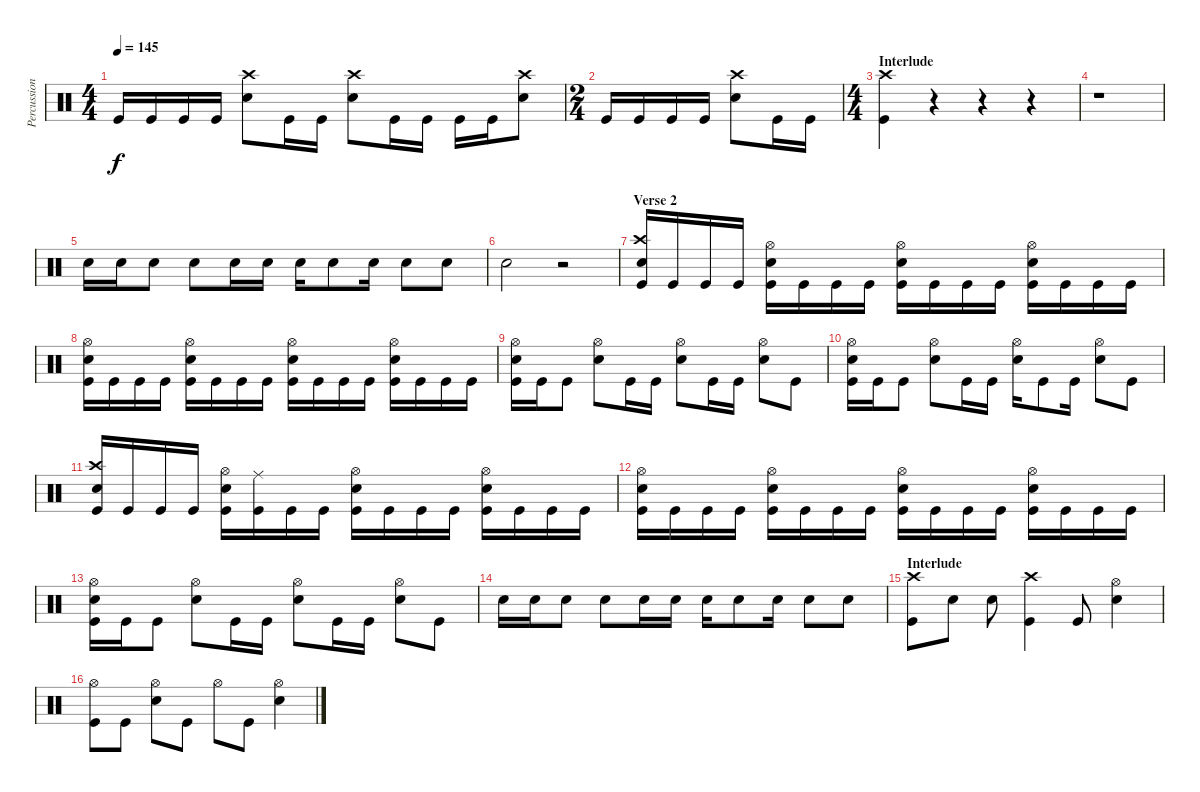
\track ("Percussions" "Percussion") {instrument percussion}
\staff {score}
\articulation defaults
\ts (4 4)
\tempo 145
\clef neutral
\ks c "Kick (hit)".16{dy f} "Kick (hit)".16 "Kick (hit)".16 "Kick (hit)".16
("Crash high (hit)" "Snare (hit) 2").8 "Kick (hit)".16 "Kick (hit)".16 ("Crash high (hit)" "Snare (hit) 2").8 "Kick (hit)".16 "Kick (hit)".16 "Kick (hit)".16 "Kick (hit)".16 ("Crash high (hit)" "Snare (hit) 2").8 |
\ts (2 4)
"Kick (hit)".16 "Kick (hit)".16 "Kick (hit)".16 "Kick (hit)".16 ("Crash high (hit)" "Snare (hit) 2").8 "Kick (hit)".16 "Kick (hit)".16 |
\ts (4 4)
\section ("" "Interlude")
("Crash high (hit)" "Kick (hit)").4 r.4 r.4 r.4 |
r.1 |
"Snare (hit) 2".16 "Snare (hit) 2".16 "Snare (hit) 2".8 "Snare (hit) 2".8 "Snare (hit) 2".16 "Snare (hit) 2".16 "Snare (hit) 2".16 "Snare (hit) 2".8 "Snare (hit) 2".16 "Snare (hit) 2".8 "Snare (hit) 2".8 |
"Snare (hit) 2".2 r.2 |
\section ("" "Verse 2")
("Crash high (hit)" "Snare (hit) 2" "Kick (hit)").16 "Kick (hit)".16 "Kick (hit)".16 "Kick (hit)".16 ("Hi-Hat (open)" "Snare (hit) 2" "Kick (hit)").16 "Kick (hit)".16 "Kick (hit)".16 "Kick (hit)".16 ("Hi-Hat (open)" "Snare (hit) 2" "Kick (hit)").16 "Kick (hit)".16 "Kick (hit)".16 "Kick (hit)".16 ("Hi-Hat (open)" "Snare (hit) 2" "Kick (hit)").16 "Kick (hit)".16 "Kick (hit)".16 "Kick (hit)".16 |
("Hi-Hat (open)" "Snare (hit) 2" "Kick (hit)").16 "Kick (hit)".16 "Kick (hit)".16 "Kick (hit)".16 ("Hi-Hat (open)" "Snare (hit) 2" "Kick (hit)").16 "Kick (hit)".16 "Kick (hit)".16 "Kick (hit)".16 ("Hi-Hat (open)" "Snare (hit) 2" "Kick (hit)").16 "Kick (hit)".16 "Kick (hit)".16 "Kick (hit)".16 ("Hi-Hat (open)" "Snare (hit) 2" "Kick (hit)").16 "Kick (hit)".16 "Kick (hit)".16 "Kick (hit)".16 |
("Hi-Hat (open)" "Snare (hit) 2" "Kick (hit)").16 "Kick (hit)".16 "Kick (hit)".8 ("Hi-Hat (open)" "Snare (hit) 2").8 "Kick (hit)".16 "Kick (hit)".16 ("Hi-Hat (open)" "Snare (hit) 2").8 "Kick (hit)".16 "Kick (hit)".16 ("Hi-Hat (open)" "Snare (hit) 2").8 "Kick (hit)".8 |
("Hi-Hat (open)" "Snare (hit) 2" "Kick (hit)").16 "Kick (hit)".16 "Kick (hit)".8 ("Hi-Hat (open)" "Snare (hit) 2").8 "Kick (hit)".16 "Kick (hit)".16 ("Hi-Hat (open)" "Snare (hit) 2").16 "Kick (hit)".8 "Kick (hit)".16 ("Hi-Hat (open)" "Snare (hit) 2").8 "Kick (hit)".8 |
("Crash high (hit)" "Snare (hit) 2" "Kick (hit)").16 "Kick (hit)".16 "Kick (hit)".16 "Kick (hit)".16 ("Hi-Hat (open)" "Snare (hit) 2" "Kick (hit)").16 ("Ride (middle)" "Kick (hit)").16 "Kick (hit)".16 "Kick (hit)".16 ("Hi-Hat (open)" "Snare (hit) 2" "Kick (hit)").16 "Kick (hit)".16 "Kick (hit)".16 "Kick (hit)".16 ("Hi-Hat (open)" "Snare (hit) 2" "Kick (hit)").16 "Kick (hit)".16 "Kick (hit)".16 "Kick (hit)".16 |
("Hi-Hat (open)" "Snare (hit) 2" "Kick (hit)").16 "Kick (hit)".16 "Kick (hit)".16 "Kick (hit)".16 ("Hi-Hat (open)" "Snare (hit) 2" "Kick (hit)").16 "Kick (hit)".16 "Kick (hit)".16 "Kick (hit)".16 ("Hi-Hat (open)" "Snare (hit) 2" "Kick (hit)").16 "Kick (hit)".16 "Kick (hit)".16 "Kick (hit)".16 ("Hi-Hat (open)" "Snare (hit) 2" "Kick (hit)").16 "Kick (hit)".16 "Kick (hit)".16 "Kick (hit)".16 |
("Hi-Hat (open)" "Snare (hit) 2" "Kick (hit)").16 "Kick (hit)".16 "Kick (hit)".8 ("Hi-Hat (open)" "Snare (hit) 2").8 "Kick (hit)".16 "Kick (hit)".16 ("Hi-Hat (open)" "Snare (hit) 2").8 "Kick (hit)".16 "Kick (hit)".16 ("Hi-Hat (open)" "Snare (hit) 2").8 "Kick (hit)".8 |
"Snare (hit) 2".16 "Snare (hit) 2".16 "Snare (hit) 2".8 "Snare (hit) 2".8 "Snare (hit) 2".16 "Snare (hit) 2".16 "Snare (hit) 2".16 "Snare (hit) 2".8 "Snare (hit) 2".16 "Snare (hit) 2".8 "Snare (hit) 2".8 |
\section ("" "Interlude")
("Crash high (hit)" "Kick (hit)").8 "Snare (hit) 2".8 "Snare (hit) 2".8 ("Crash high (hit)" "Kick (hit)").4 "Kick (hit)".8 ("Hi-Hat (open)" "Snare (hit) 2").4 |
("Hi-Hat (open)" "Kick (hit)").8 "Kick (hit)".8 ("Hi-Hat (open)" "Snare (hit) 2").8 "Kick (hit)".8 "Hi-Hat (open)".8 "Kick (hit)".8 ("Hi-Hat (open)" "Snare (hit) 2").4
